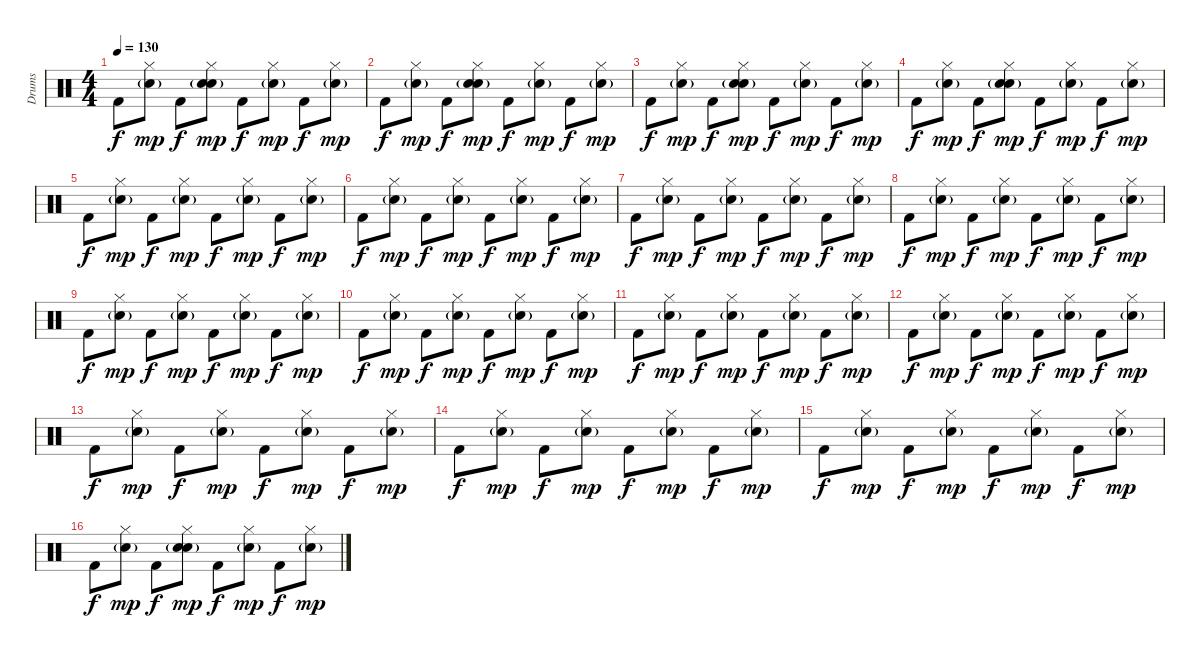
\track ("Drums" "Drums") {instrument percussion}
\staff {score}
\articulation defaults
\ts (4 4)
\tempo 130
\clef neutral
\ks c "Kick (hit) 2".8{dy f}
("Hi-Hat (closed)" "Hand Clap (hit)"{g}).8{dy mp} "Kick (hit) 2".8{dy f} ("Hi-Hat (closed)" "Hand Clap (hit)"{g} "Electric Snare (hit)").8{dy mp} "Kick (hit) 2".8{dy f} ("Hi-Hat (closed)" "Hand Clap (hit)"{g}).8{dy mp} "Kick (hit) 2".8{dy f} ("Hi-Hat (closed)" "Hand Clap (hit)"{g}).8{dy mp} |
"Kick (hit) 2".8{dy f} ("Hi-Hat (closed)" "Hand Clap (hit)"{g}).8{dy mp} "Kick (hit) 2".8{dy f} ("Hi-Hat (closed)" "Hand Clap (hit)"{g} "Electric Snare (hit)").8{dy mp} "Kick (hit) 2".8{dy f} ("Hi-Hat (closed)" "Hand Clap (hit)"{g}).8{dy mp} "Kick (hit) 2".8{dy f} ("Hi-Hat (closed)" "Hand Clap (hit)"{g}).8{dy mp} |
"Kick (hit) 2".8{dy f} ("Hi-Hat (closed)" "Hand Clap (hit)"{g}).8{dy mp} "Kick (hit) 2".8{dy f} ("Hi-Hat (closed)" "Hand Clap (hit)"{g} "Electric Snare (hit)").8{dy mp} "Kick (hit) 2".8{dy f} ("Hi-Hat (closed)" "Hand Clap (hit)"{g}).8{dy mp} "Kick (hit) 2".8{dy f} ("Hi-Hat (closed)" "Hand Clap (hit)"{g}).8{dy mp} |
"Kick (hit) 2".8{dy f} ("Hi-Hat (closed)" "Hand Clap (hit)"{g}).8{dy mp} "Kick (hit) 2".8{dy f} ("Hi-Hat (closed)" "Hand Clap (hit)"{g} "Electric Snare (hit)").8{dy mp} "Kick (hit) 2".8{dy f} ("Hi-Hat (closed)" "Hand Clap (hit)"{g}).8{dy mp} "Kick (hit) 2".8{dy f} ("Hi-Hat (closed)" "Hand Clap (hit)"{g}).8{dy mp} |
"Kick (hit) 2".8{dy f} ("Hi-Hat (closed)" "Hand Clap (hit)"{g}).8{dy mp} "Kick (hit) 2".8{dy f} ("Hi-Hat (closed)" "Hand Clap (hit)"{g}).8{dy mp} "Kick (hit) 2".8{dy f} ("Hi-Hat (closed)" "Hand Clap (hit)"{g}).8{dy mp} "Kick (hit) 2".8{dy f} ("Hi-Hat (closed)" "Hand Clap (hit)"{g}).8{dy mp} |
"Kick (hit) 2".8{dy f} ("Hi-Hat (closed)" "Hand Clap (hit)"{g}).8{dy mp} "Kick (hit) 2".8{dy f} ("Hi-Hat (closed)" "Hand Clap (hit)"{g}).8{dy mp} "Kick (hit) 2".8{dy f} ("Hi-Hat (closed)" "Hand Clap (hit)"{g}).8{dy mp} "Kick (hit) 2".8{dy f} ("Hi-Hat (closed)" "Hand Clap (hit)"{g}).8{dy mp} |
"Kick (hit) 2".8{dy f} ("Hi-Hat (closed)" "Hand Clap (hit)"{g}).8{dy mp} "Kick (hit) 2".8{dy f} ("Hi-Hat (closed)" "Hand Clap (hit)"{g}).8{dy mp} "Kick (hit) 2".8{dy f} ("Hi-Hat (closed)" "Hand Clap (hit)"{g}).8{dy mp} "Kick (hit) 2".8{dy f} ("Hi-Hat (closed)" "Hand Clap (hit)"{g}).8{dy mp} |
"Kick (hit) 2".8{dy f} ("Hi-Hat (closed)" "Hand Clap (hit)"{g}).8{dy mp} "Kick (hit) 2".8{dy f} ("Hi-Hat (closed)" "Hand Clap (hit)"{g}).8{dy mp} "Kick (hit) 2".8{dy f} ("Hi-Hat (closed)" "Hand Clap (hit)"{g}).8{dy mp} "Kick (hit) 2".8{dy f} ("Hi-Hat (closed)" "Hand Clap (hit)"{g}).8{dy mp} |
"Kick (hit) 2".8{dy f} ("Hi-Hat (closed)" "Hand Clap (hit)"{g}).8{dy mp} "Kick (hit) 2".8{dy f} ("Hi-Hat (closed)" "Hand Clap (hit)"{g}).8{dy mp} "Kick (hit) 2".8{dy f} ("Hi-Hat (closed)" "Hand Clap (hit)"{g}).8{dy mp} "Kick (hit) 2".8{dy f} ("Hi-Hat (closed)" "Hand Clap (hit)"{g}).8{dy mp} |
"Kick (hit) 2".8{dy f} ("Hi-Hat (closed)" "Hand Clap (hit)"{g}).8{dy mp} "Kick (hit) 2".8{dy f} ("Hi-Hat (closed)" "Hand Clap (hit)"{g}).8{dy mp} "Kick (hit) 2".8{dy f} ("Hi-Hat (closed)" "Hand Clap (hit)"{g}).8{dy mp} "Kick (hit) 2".8{dy f} ("Hi-Hat (closed)" "Hand Clap (hit)"{g}).8{dy mp} |
"Kick (hit) 2".8{dy f} ("Hi-Hat (closed)" "Hand Clap (hit)"{g}).8{dy mp} "Kick (hit) 2".8{dy f} ("Hi-Hat (closed)" "Hand Clap (hit)"{g}).8{dy mp} "Kick (hit) 2".8{dy f} ("Hi-Hat (closed)" "Hand Clap (hit)"{g}).8{dy mp} "Kick (hit) 2".8{dy f} ("Hi-Hat (closed)" "Hand Clap (hit)"{g}).8{dy mp} |
"Kick (hit) 2".8{dy f} ("Hi-Hat (closed)" "Hand Clap (hit)"{g}).8{dy mp} "Kick (hit) 2".8{dy f} ("Hi-Hat (closed)" "Hand Clap (hit)"{g}).8{dy mp} "Kick (hit) 2".8{dy f} ("Hi-Hat (closed)" "Hand Clap (hit)"{g}).8{dy mp} "Kick (hit) 2".8{dy f} ("Hi-Hat (closed)" "Hand Clap (hit)"{g}).8{dy mp} |
"Kick (hit) 2".8{dy f} ("Hi-Hat (closed)" "Hand Clap (hit)"{g}).8{dy mp} "Kick (hit) 2".8{dy f} ("Hi-Hat (closed)" "Hand Clap (hit)"{g}).8{dy mp} "Kick (hit) 2".8{dy f} ("Hi-Hat (closed)" "Hand Clap (hit)"{g}).8{dy mp} "Kick (hit) 2".8{dy f} ("Hi-Hat (closed)" "Hand Clap (hit)"{g}).8{dy mp} |
"Kick (hit) 2".8{dy f} ("Hi-Hat (closed)" "Hand Clap (hit)"{g}).8{dy mp} "Kick (hit) 2".8{dy f} ("Hi-Hat (closed)" "Hand Clap (hit)"{g}).8{dy mp} "Kick (hit) 2".8{dy f} ("Hi-Hat (closed)" "Hand Clap (hit)"{g}).8{dy mp} "Kick (hit) 2".8{dy f} ("Hi-Hat (closed)" "Hand Clap (hit)"{g}).8{dy mp} |
"Kick (hit) 2".8{dy f} ("Hi-Hat (closed)" "Hand Clap (hit)"{g}).8{dy mp} "Kick (hit) 2".8{dy f} ("Hi-Hat (closed)" "Hand Clap (hit)"{g}).8{dy mp} "Kick (hit) 2".8{dy f} ("Hi-Hat (closed)" "Hand Clap (hit)"{g}).8{dy mp} "Kick (hit) 2".8{dy f} ("Hi-Hat (closed)" "Hand Clap (hit)"{g}).8{dy mp} |
"Kick (hit) 2".8{dy f} ("Hi-Hat (closed)" "Hand Clap (hit)"{g}).8{dy mp} "Kick (hit) 2".8{dy f} ("Hi-Hat (closed)" "Hand Clap (hit)"{g} "Electric Snare (hit)").8{dy mp} "Kick (hit) 2".8{dy f} ("Hi-Hat (closed)" "Hand Clap (hit)"{g}).8{dy mp} "Kick (hit) 2".8{dy f} ("Hi-Hat (closed)" "Hand Clap (hit)"{g}).8{dy mp}
